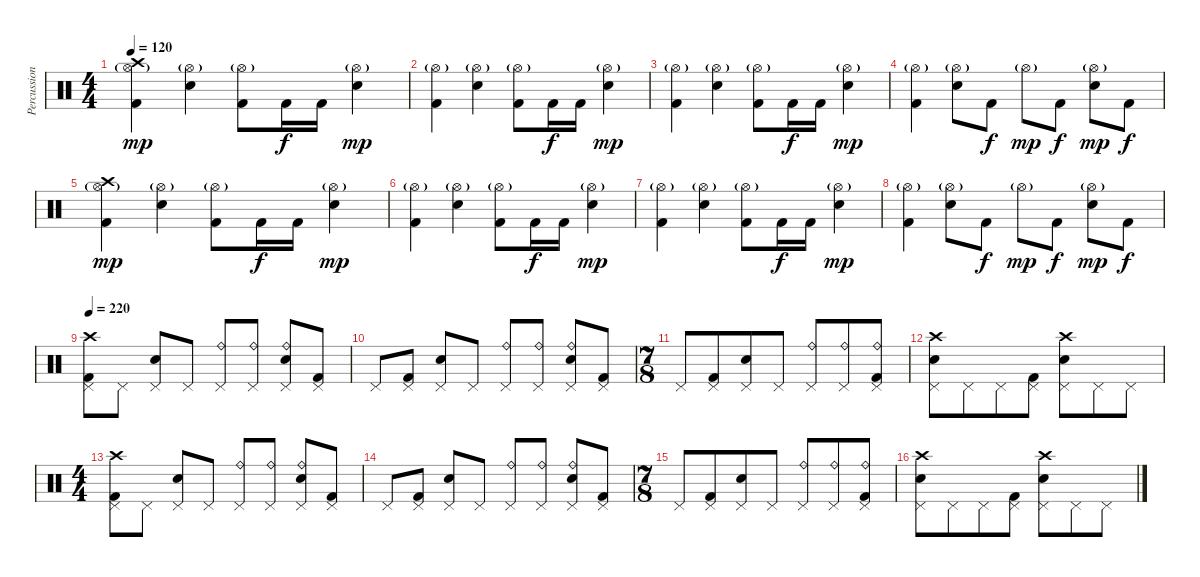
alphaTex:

\track ("Percussion" "Percussion") {instrument percussion}
\staff {score}
\articulation defaults
\ts (4 4)
\tempo 120
\clef neutral
\ks c
("Hi-Hat (open)"{g} "Crash high (hit)" "Kick (hit) 2").4{dy mp} ("Hi-Hat (open)"{g} "Snare (hit) 2").4 ("Hi-Hat (open)"{g} "Kick (hit) 2").8 "Kick (hit) 2".16{dy f} "Kick (hit) 2".16 ("Hi-Hat (open)"{g} "Snare (hit) 2").4{dy mp} |
("Hi-Hat (open)"{g} "Kick (hit) 2").4 ("Hi-Hat (open)"{g} "Snare (hit) 2").4 ("Hi-Hat (open)"{g} "Kick (hit) 2").8 "Kick (hit) 2".16{dy f} "Kick (hit) 2".16 ("Hi-Hat (open)"{g} "Snare (hit) 2").4{dy mp} |
("Hi-Hat (open)"{g} "Kick (hit) 2").4 ("Hi-Hat (open)"{g} "Snare (hit) 2").4 ("Hi-Hat (open)"{g} "Kick (hit) 2").8 "Kick (hit) 2".16{dy f} "Kick (hit) 2".16 ("Hi-Hat (open)"{g} "Snare (hit) 2").4{dy mp} |
("Hi-Hat (open)"{g} "Kick (hit) 2").4 ("Hi-Hat (open)"{g} "Snare (hit) 2").8 "Kick (hit) 2".8{dy f} "Hi-Hat (open)"{g}.8{dy mp} "Kick (hit) 2".8{dy f} ("Hi-Hat (open)"{g} "Snare (hit) 2").8{dy mp} "Kick (hit) 2".8{dy f} |
("Hi-Hat (open)"{g} "Crash high (hit)" "Kick (hit) 2").4{dy mp} ("Hi-Hat (open)"{g} "Snare (hit) 2").4 ("Hi-Hat (open)"{g} "Kick (hit) 2").8 "Kick (hit) 2".16{dy f} "Kick (hit) 2".16 ("Hi-Hat (open)"{g} "Snare (hit) 2").4{dy mp} |
("Hi-Hat (open)"{g} "Kick (hit) 2").4 ("Hi-Hat (open)"{g} "Snare (hit) 2").4 ("Hi-Hat (open)"{g} "Kick (hit) 2").8 "Kick (hit) 2".16{dy f} "Kick (hit) 2".16 ("Hi-Hat (open)"{g} "Snare (hit) 2").4{dy mp} |
("Hi-Hat (open)"{g} "Kick (hit) 2").4 ("Hi-Hat (open)"{g} "Snare (hit) 2").4 ("Hi-Hat (open)"{g} "Kick (hit) 2").8 "Kick (hit) 2".16{dy f} "Kick (hit) 2".16 ("Hi-Hat (open)"{g} "Snare (hit) 2").4{dy mp} |
("Hi-Hat (open)"{g} "Kick (hit) 2").4 ("Hi-Hat (open)"{g} "Snare (hit) 2").8 "Kick (hit) 2".8{dy f} "Hi-Hat (open)"{g}.8{dy mp} "Kick (hit) 2".8{dy f} ("Hi-Hat (open)"{g} "Snare (hit) 2").8{dy mp} "Kick (hit) 2".8{dy f} |
\tempo 220
("Crash high (hit)" "Pedal Hi-Hat (hit)" "Kick (hit) 2").8 "Pedal Hi-Hat (hit)".8 ("Pedal Hi-Hat (hit)" "Snare (hit) 2").8 "Pedal Hi-Hat (hit)".8 ("Ride (bell)" "Pedal Hi-Hat (hit)").8 ("Ride (bell)" "Pedal Hi-Hat (hit)").8 ("Ride (bell)" "Pedal Hi-Hat (hit)" "Snare (hit) 2").8 ("Pedal Hi-Hat (hit)" "Kick (hit) 2").8 |
"Pedal Hi-Hat (hit)".8 ("Pedal Hi-Hat (hit)" "Kick (hit) 2").8 ("Pedal Hi-Hat (hit)" "Snare (hit) 2").8 "Pedal Hi-Hat (hit)".8 ("Ride (bell)" "Pedal Hi-Hat (hit)").8 ("Ride (bell)" "Pedal Hi-Hat (hit)").8 ("Ride (bell)" "Pedal Hi-Hat (hit)" "Snare (hit) 2").8 ("Pedal Hi-Hat (hit)" "Kick (hit) 2").8 |
\ts (7 8)
"Pedal Hi-Hat (hit)".8 ("Pedal Hi-Hat (hit)" "Kick (hit) 2").8 ("Pedal Hi-Hat (hit)" "Snare (hit) 2").8 "Pedal Hi-Hat (hit)".8 ("Ride (bell)" "Pedal Hi-Hat (hit)").8 ("Ride (bell)" "Pedal Hi-Hat (hit)").8 ("Ride (bell)" "Pedal Hi-Hat (hit)" "Kick (hit) 2").8 |
("Pedal Hi-Hat (hit)" "Crash high (hit)" "Snare (hit) 2").8 "Pedal Hi-Hat (hit)".8 "Pedal Hi-Hat (hit)".8 ("Pedal Hi-Hat (hit)" "Kick (hit) 2").8 ("Pedal Hi-Hat (hit)" "Crash high (hit)" "Snare (hit) 2").8 "Pedal Hi-Hat (hit)".8 "Pedal Hi-Hat (hit)".8 |
\ts (4 4)
("Crash high (hit)" "Pedal Hi-Hat (hit)" "Kick (hit) 2").8 "Pedal Hi-Hat (hit)".8 ("Pedal Hi-Hat (hit)" "Snare (hit) 2").8 "Pedal Hi-Hat (hit)".8 ("Ride (bell)" "Pedal Hi-Hat (hit)").8 ("Ride (bell)" "Pedal Hi-Hat (hit)").8 ("Ride (bell)" "Pedal Hi-Hat (hit)" "Snare (hit) 2").8 ("Pedal Hi-Hat (hit)" "Kick (hit) 2").8 |
"Pedal Hi-Hat (hit)".8 ("Pedal Hi-Hat (hit)" "Kick (hit) 2").8 ("Pedal Hi-Hat (hit)" "Snare (hit) 2").8 "Pedal Hi-Hat (hit)".8 ("Ride (bell)" "Pedal Hi-Hat (hit)").8 ("Ride (bell)" "Pedal Hi-Hat (hit)").8 ("Ride (bell)" "Pedal Hi-Hat (hit)" "Snare (hit) 2").8 ("Pedal Hi-Hat (hit)" "Kick (hit) 2").8 |
\ts (7 8)
"Pedal Hi-Hat (hit)".8 ("Pedal Hi-Hat (hit)" "Kick (hit) 2").8 ("Pedal Hi-Hat (hit)" "Snare (hit) 2").8 "Pedal Hi-Hat (hit)".8 ("Ride (bell)" "Pedal Hi-Hat (hit)").8 ("Ride (bell)" "Pedal Hi-Hat (hit)").8 ("Ride (bell)" "Pedal Hi-Hat (hit)" "Kick (hit) 2").8 |
("Pedal Hi-Hat (hit)" "Crash high (hit)" "Snare (hit) 2").8 "Pedal Hi-Hat (hit)".8 "Pedal Hi-Hat (hit)".8 ("Pedal Hi-Hat (hit)" "Kick (hit) 2").8 ("Pedal Hi-Hat (hit)" "Crash high (hit)" "Snare (hit) 2").8 "Pedal Hi-Hat (hit)".8 "Pedal Hi-Hat (hit)".8
